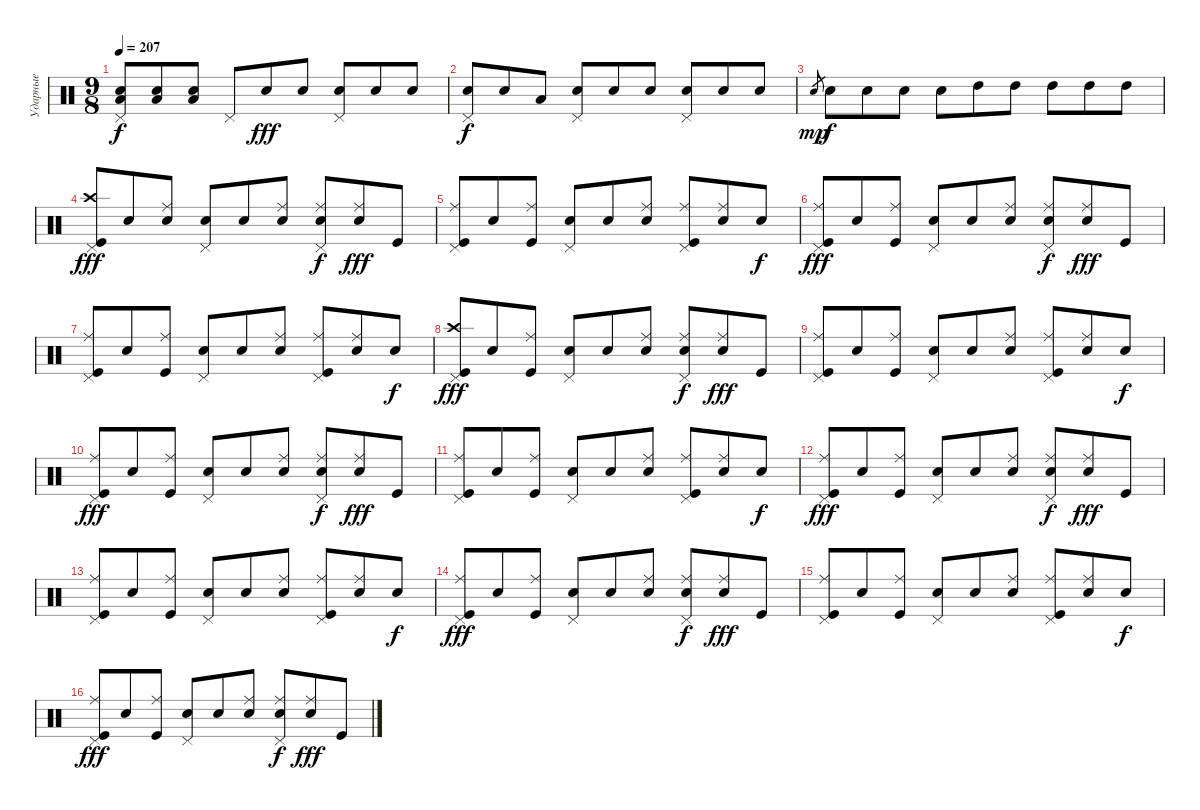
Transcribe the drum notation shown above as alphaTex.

\track ("Ударные" "Ударные") {instrument percussion}
\staff {score}
\articulation defaults
\ts (9 8)
\tempo 207
\clef neutral
\ks c
("Pedal Hi-Hat (hit)" "Low Tom (hit)" "Electric Snare (hit)").8{dy f} ("Low Tom (hit)" "Electric Snare (hit)").8 ("Low Tom (hit)" "Electric Snare (hit)").8 "Pedal Hi-Hat (hit)".8 "Snare (hit)".8{dy fff} "Snare (hit)".8 ("Pedal Hi-Hat (hit)" "Snare (hit)").8 "Snare (hit)".8 "Snare (hit)".8 |
("Pedal Hi-Hat (hit)" "Electric Snare (hit)").8{dy f} "Snare (hit)".8 "Low Tom (hit)".8 ("Pedal Hi-Hat (hit)" "Snare (hit)").8 "Snare (hit)".8 "Snare (hit)".8 ("Pedal Hi-Hat (hit)" "Snare (hit)").8 "Snare (hit)".8 "Snare (hit)".8 |
"Electric Snare (hit)".8{gr dy mp} "Electric Snare (hit)".8{dy f} "Electric Snare (hit)".8 "Electric Snare (hit)".8 "Electric Snare (hit)".8 "High Tom (hit)".8 "High Tom (hit)".8 "High Tom (hit)".8 "High Tom (hit)".8 "High Tom (hit)".8 |
("Crash high (hit)" "Pedal Hi-Hat (hit)" "Kick (hit)").8{dy fff} "Snare (hit)".8 ("Ride (middle)" "Snare (hit)").8 ("Pedal Hi-Hat (hit)" "Snare (hit)").8 "Snare (hit)".8 ("Ride (middle)" "Snare (hit)").8 ("Ride (middle)" "Pedal Hi-Hat (hit)" "Electric Snare (hit)").8{dy f} ("Ride (middle)" "Snare (hit)").8{dy fff} "Kick (hit)".8 |
("Ride (middle)" "Pedal Hi-Hat (hit)" "Kick (hit)").8 "Snare (hit)".8 ("Ride (middle)" "Kick (hit)").8 ("Pedal Hi-Hat (hit)" "Snare (hit)").8 "Snare (hit)".8 ("Ride (middle)" "Snare (hit)").8 ("Ride (middle)" "Pedal Hi-Hat (hit)" "Kick (hit)").8 ("Ride (middle)" "Snare (hit)").8 "Electric Snare (hit)".8{dy f} |
("Ride (middle)" "Pedal Hi-Hat (hit)" "Kick (hit)").8{dy fff} "Snare (hit)".8 ("Ride (middle)" "Kick (hit)").8 ("Pedal Hi-Hat (hit)" "Snare (hit)").8 "Snare (hit)".8 ("Ride (middle)" "Snare (hit)").8 ("Ride (middle)" "Pedal Hi-Hat (hit)" "Electric Snare (hit)").8{dy f} ("Ride (middle)" "Snare (hit)").8{dy fff} "Kick (hit)".8 |
("Ride (middle)" "Pedal Hi-Hat (hit)" "Kick (hit)").8 "Snare (hit)".8 ("Ride (middle)" "Kick (hit)").8 ("Pedal Hi-Hat (hit)" "Snare (hit)").8 "Snare (hit)".8 ("Ride (middle)" "Snare (hit)").8 ("Ride (middle)" "Pedal Hi-Hat (hit)" "Kick (hit)").8 ("Ride (middle)" "Snare (hit)").8 "Electric Snare (hit)".8{dy f} |
("Crash high (hit)" "Pedal Hi-Hat (hit)" "Kick (hit)").8{dy fff} "Snare (hit)".8 ("Ride (middle)" "Kick (hit)").8 ("Pedal Hi-Hat (hit)" "Snare (hit)").8 "Snare (hit)".8 ("Ride (middle)" "Snare (hit)").8 ("Ride (middle)" "Pedal Hi-Hat (hit)" "Electric Snare (hit)").8{dy f} ("Ride (middle)" "Snare (hit)").8{dy fff} "Kick (hit)".8 |
("Ride (middle)" "Pedal Hi-Hat (hit)" "Kick (hit)").8 "Snare (hit)".8 ("Ride (middle)" "Kick (hit)").8 ("Pedal Hi-Hat (hit)" "Snare (hit)").8 "Snare (hit)".8 ("Ride (middle)" "Snare (hit)").8 ("Ride (middle)" "Pedal Hi-Hat (hit)" "Kick (hit)").8 ("Ride (middle)" "Snare (hit)").8 "Electric Snare (hit)".8{dy f} |
("Ride (middle)" "Pedal Hi-Hat (hit)" "Kick (hit)").8{dy fff} "Snare (hit)".8 ("Ride (middle)" "Kick (hit)").8 ("Pedal Hi-Hat (hit)" "Snare (hit)").8 "Snare (hit)".8 ("Ride (middle)" "Snare (hit)").8 ("Ride (middle)" "Pedal Hi-Hat (hit)" "Electric Snare (hit)").8{dy f} ("Ride (middle)" "Snare (hit)").8{dy fff} "Kick (hit)".8 |
("Ride (middle)" "Pedal Hi-Hat (hit)" "Kick (hit)").8 "Snare (hit)".8 ("Ride (middle)" "Kick (hit)").8 ("Pedal Hi-Hat (hit)" "Snare (hit)").8 "Snare (hit)".8 ("Ride (middle)" "Snare (hit)").8 ("Ride (middle)" "Pedal Hi-Hat (hit)" "Kick (hit)").8 ("Ride (middle)" "Snare (hit)").8 "Electric Snare (hit)".8{dy f} |
("Ride (middle)" "Pedal Hi-Hat (hit)" "Kick (hit)").8{dy fff} "Snare (hit)".8 ("Ride (middle)" "Kick (hit)").8 ("Pedal Hi-Hat (hit)" "Snare (hit)").8 "Snare (hit)".8 ("Ride (middle)" "Snare (hit)").8 ("Ride (middle)" "Pedal Hi-Hat (hit)" "Electric Snare (hit)").8{dy f} ("Ride (middle)" "Snare (hit)").8{dy fff} "Kick (hit)".8 |
("Ride (middle)" "Pedal Hi-Hat (hit)" "Kick (hit)").8 "Snare (hit)".8 ("Ride (middle)" "Kick (hit)").8 ("Pedal Hi-Hat (hit)" "Snare (hit)").8 "Snare (hit)".8 ("Ride (middle)" "Snare (hit)").8 ("Ride (middle)" "Pedal Hi-Hat (hit)" "Kick (hit)").8 ("Ride (middle)" "Snare (hit)").8 "Electric Snare (hit)".8{dy f} |
("Ride (middle)" "Pedal Hi-Hat (hit)" "Kick (hit)").8{dy fff} "Snare (hit)".8 ("Ride (middle)" "Kick (hit)").8 ("Pedal Hi-Hat (hit)" "Snare (hit)").8 "Snare (hit)".8 ("Ride (middle)" "Snare (hit)").8 ("Ride (middle)" "Pedal Hi-Hat (hit)" "Electric Snare (hit)").8{dy f} ("Ride (middle)" "Snare (hit)").8{dy fff} "Kick (hit)".8 |
("Ride (middle)" "Pedal Hi-Hat (hit)" "Kick (hit)").8 "Snare (hit)".8 ("Ride (middle)" "Kick (hit)").8 ("Pedal Hi-Hat (hit)" "Snare (hit)").8 "Snare (hit)".8 ("Ride (middle)" "Snare (hit)").8 ("Ride (middle)" "Pedal Hi-Hat (hit)" "Kick (hit)").8 ("Ride (middle)" "Snare (hit)").8 "Electric Snare (hit)".8{dy f} |
("Ride (middle)" "Pedal Hi-Hat (hit)" "Kick (hit)").8{dy fff} "Snare (hit)".8 ("Ride (middle)" "Kick (hit)").8 ("Pedal Hi-Hat (hit)" "Snare (hit)").8 "Snare (hit)".8 ("Ride (middle)" "Snare (hit)").8 ("Ride (middle)" "Pedal Hi-Hat (hit)" "Electric Snare (hit)").8{dy f} ("Ride (middle)" "Snare (hit)").8{dy fff} "Kick (hit)".8
